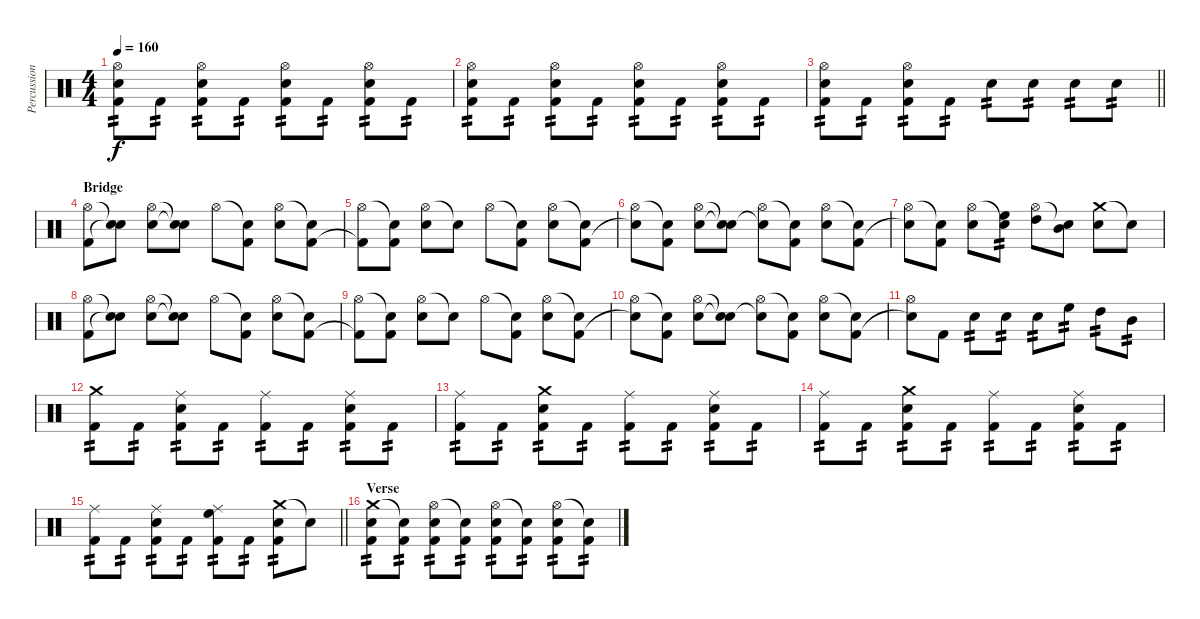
\track ("Percussion" "Percussion") {instrument percussion}
\staff {score}
\articulation defaults
\ts (4 4)
\tempo 160
\clef neutral
\ks c
("Hi-Hat (open)" "Electric Snare (hit)" "Kick (hit) 2").8{tp 2 dy f} "Kick (hit) 2".8{tp 2} ("Hi-Hat (open)" "Electric Snare (hit)" "Kick (hit) 2").8{tp 2} "Kick (hit) 2".8{tp 2} ("Hi-Hat (open)" "Electric Snare (hit)" "Kick (hit) 2").8{tp 2} "Kick (hit) 2".8{tp 2} ("Hi-Hat (open)" "Electric Snare (hit)" "Kick (hit) 2").8{tp 2} "Kick (hit) 2".8{tp 2} |
("Hi-Hat (open)" "Electric Snare (hit)" "Kick (hit) 2").8{tp 2} "Kick (hit) 2".8{tp 2} ("Hi-Hat (open)" "Electric Snare (hit)" "Kick (hit) 2").8{tp 2} "Kick (hit) 2".8{tp 2} ("Hi-Hat (open)" "Electric Snare (hit)" "Kick (hit) 2").8{tp 2} "Kick (hit) 2".8{tp 2} ("Hi-Hat (open)" "Electric Snare (hit)" "Kick (hit) 2").8{tp 2} "Kick (hit) 2".8{tp 2} |
\barLineRight lightlight
("Hi-Hat (open)" "Electric Snare (hit)" "Kick (hit) 2").8{tp 2} "Kick (hit) 2".8{tp 2} ("Hi-Hat (open)" "Electric Snare (hit)" "Kick (hit) 2").8{tp 2} "Kick (hit) 2".8{tp 2} "Electric Snare (hit)".8{tp 2} "Electric Snare (hit)".8{tp 2} "Electric Snare (hit)".8{tp 2} "Electric Snare (hit)".8{tp 2} |
\section ("" "Bridge")
("Hi-Hat (open)" "Kick (hit) 2").8 ("Snare (hit)"{t} "Snare (hit)"{t}).8 ("Hi-Hat (open)" "Electric Snare (hit)").8 ("Snare (hit)"{t} "Snare (hit)"{t}).8 "Hi-Hat (open)".8 ("Snare (hit)"{t} "Kick (hit) 2").8 ("Hi-Hat (open)" "Electric Snare (hit)").8 ("Snare (hit)"{t} "Kick (hit) 2").8 |
("Hi-Hat (open)" "Kick (hit) 2"{t}).8 ("Snare (hit)"{t} "Kick (hit) 2").8 ("Hi-Hat (open)" "Electric Snare (hit)").8 "Snare (hit)"{t}.8 "Hi-Hat (open)".8 ("Snare (hit)"{t} "Kick (hit) 2").8 ("Hi-Hat (open)" "Electric Snare (hit)").8 ("Snare (hit)"{t} "Kick (hit) 2").8 |
("Hi-Hat (open)" "Snare (hit)"{t}).8 ("Snare (hit)"{t} "Kick (hit) 2").8 ("Hi-Hat (open)" "Electric Snare (hit)").8 ("Snare (hit)"{t} "Snare (hit)"{t}).8 ("Hi-Hat (open)" "Snare (hit)"{t}).8 ("Snare (hit)"{t} "Kick (hit) 2").8 ("Hi-Hat (open)" "Electric Snare (hit)").8 ("Snare (hit)"{t} "Kick (hit) 2").8 |
("Hi-Hat (open)" "Snare (hit)"{t}).8 ("Snare (hit)"{t} "Kick (hit) 2").8 ("Hi-Hat (open)" "Electric Snare (hit)").8 ("Snare (hit)"{t} "High Floor Tom (hit)").8{tp 2} ("Hi-Hat (open)" "High Tom (hit)").8 ("Snare (hit)"{t} "Mid Tom (hit)").8 ("Crash medium (hit)" "Electric Snare (hit)").8 "Snare (hit)"{t}.8 |
("Hi-Hat (open)" "Kick (hit) 2").8 ("Snare (hit)"{t} "Snare (hit)"{t}).8 ("Hi-Hat (open)" "Electric Snare (hit)").8 ("Snare (hit)"{t} "Snare (hit)"{t}).8 "Hi-Hat (open)".8 ("Snare (hit)"{t} "Kick (hit) 2").8 ("Hi-Hat (open)" "Electric Snare (hit)").8 ("Snare (hit)"{t} "Kick (hit) 2").8 |
("Hi-Hat (open)" "Kick (hit) 2"{t}).8 ("Snare (hit)"{t} "Kick (hit) 2").8 ("Hi-Hat (open)" "Electric Snare (hit)").8 "Snare (hit)"{t}.8 "Hi-Hat (open)".8 ("Snare (hit)"{t} "Kick (hit) 2").8 ("Hi-Hat (open)" "Electric Snare (hit)").8 ("Snare (hit)"{t} "Kick (hit) 2").8 |
("Hi-Hat (open)" "Snare (hit)"{t}).8 ("Snare (hit)"{t} "Kick (hit) 2").8 ("Hi-Hat (open)" "Electric Snare (hit)").8 ("Snare (hit)"{t} "Snare (hit)"{t}).8 ("Hi-Hat (open)" "Snare (hit)"{t}).8 ("Snare (hit)"{t} "Kick (hit) 2").8 ("Hi-Hat (open)" "Electric Snare (hit)").8 ("Snare (hit)"{t} "Kick (hit) 2").8 |
("Hi-Hat (open)" "Snare (hit)"{t}).8 "Kick (hit) 2".8 "Electric Snare (hit)".8{tp 2} "Electric Snare (hit)".8{tp 2} "Electric Snare (hit)".8{tp 2} "High Floor Tom (hit)".8{tp 2} "High Tom (hit)".8{tp 2} "Mid Tom (hit)".8{tp 2} |
("Crash medium (hit)" "Kick (hit) 2").8{tp 2} "Kick (hit) 2".8{tp 2} ("Ride (middle)" "Electric Snare (hit)" "Kick (hit) 2").8{tp 2} "Kick (hit) 2".8{tp 2} ("Ride (middle)" "Kick (hit) 2").8{tp 2} "Kick (hit) 2".8{tp 2} ("Ride (middle)" "Electric Snare (hit)" "Kick (hit) 2").8{tp 2} "Kick (hit) 2".8{tp 2} |
("Ride (middle)" "Kick (hit) 2").8{tp 2} "Kick (hit) 2".8{tp 2} ("Crash medium (hit)" "Electric Snare (hit)" "Kick (hit) 2").8{tp 2} "Kick (hit) 2".8{tp 2} ("Ride (middle)" "Kick (hit) 2").8{tp 2} "Kick (hit) 2".8{tp 2} ("Ride (middle)" "Electric Snare (hit)" "Kick (hit) 2").8{tp 2} "Kick (hit) 2".8{tp 2} |
("Ride (middle)" "Kick (hit) 2").8{tp 2} "Kick (hit) 2".8{tp 2} ("Crash medium (hit)" "Electric Snare (hit)" "Kick (hit) 2").8{tp 2} "Kick (hit) 2".8{tp 2} ("Ride (middle)" "Kick (hit) 2").8{tp 2} "Kick (hit) 2".8{tp 2} ("Ride (middle)" "Electric Snare (hit)" "Kick (hit) 2").8{tp 2} "Kick (hit) 2".8{tp 2} |
\barLineRight lightlight
("Ride (middle)" "Kick (hit) 2").8{tp 2} "Kick (hit) 2".8{tp 2} ("Ride (middle)" "Electric Snare (hit)" "Kick (hit) 2").8{tp 2} "Kick (hit) 2".8{tp 2} ("Ride (middle)" "High Floor Tom (hit)" "Kick (hit) 2").8{tp 2} "Kick (hit) 2".8{tp 2} ("Crash medium (hit)" "Electric Snare (hit)" "Kick (hit) 2").8{tp 2} "Snare (hit)"{t}.8 |
\section ("" "Verse")
("Crash medium (hit)" "Electric Snare (hit)" "Kick (hit) 2").8{tp 2} ("Snare (hit)"{t} "Kick (hit) 2").8{tp 2} ("Hi-Hat (open)" "Electric Snare (hit)" "Kick (hit) 2").8{tp 2} ("Snare (hit)"{t} "Kick (hit) 2").8{tp 2} ("Hi-Hat (open)" "Electric Snare (hit)" "Kick (hit) 2").8{tp 2} ("Snare (hit)"{t} "Kick (hit) 2").8{tp 2} ("Hi-Hat (open)" "Electric Snare (hit)" "Kick (hit) 2").8{tp 2} ("Snare (hit)"{t} "Kick (hit) 2").8{tp 2}
